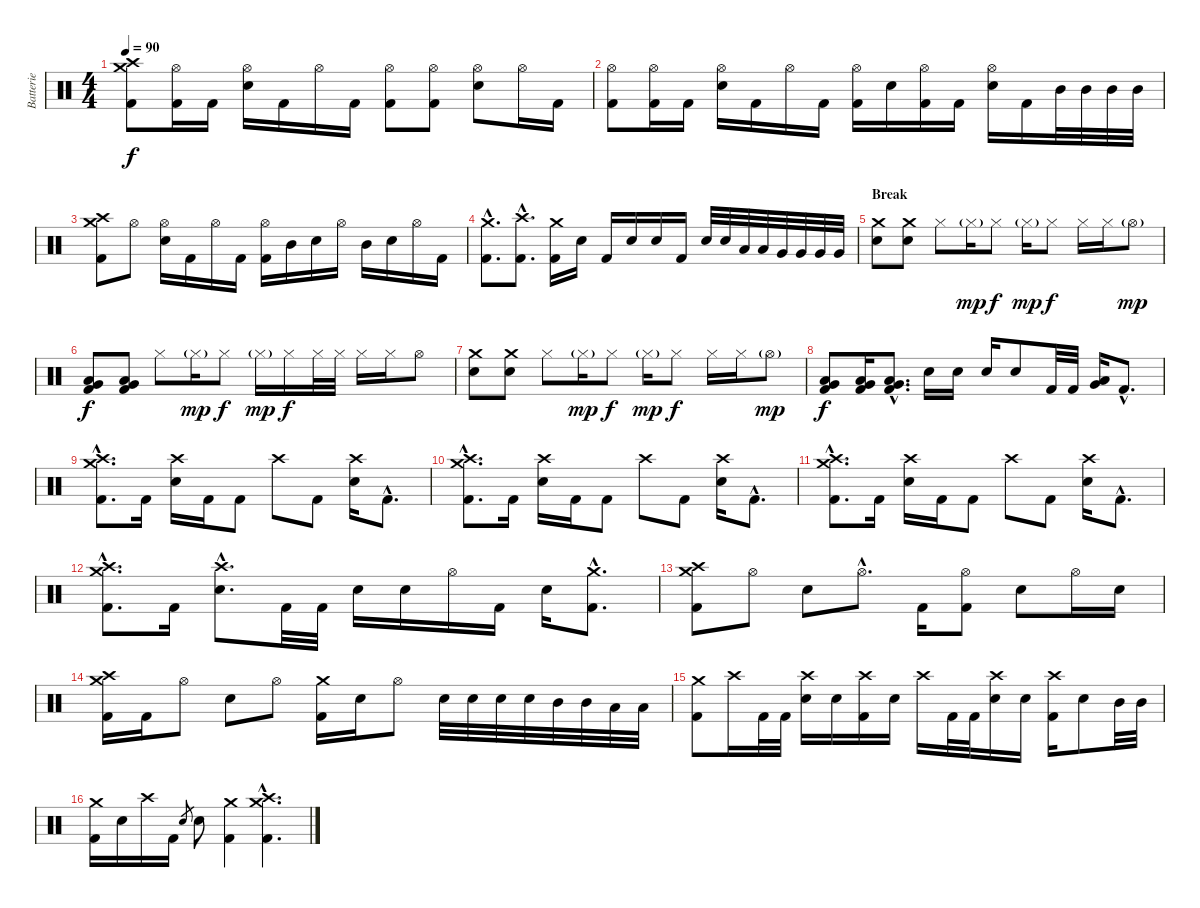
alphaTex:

\track ("Batterie" "Batterie") {instrument percussion}
\staff {score}
\articulation defaults
\ts (4 4)
\tempo 90
\clef neutral
\ks c
("Crash medium (hit)" "Crash high (hit)" "Kick (hit) 2").8{dy f} ("Hi-Hat (open)" "Kick (hit) 2").16 "Kick (hit) 2".16 ("Hi-Hat (open)" "Electric Snare (hit)").16 "Kick (hit) 2".16 "Hi-Hat (open)".16 "Kick (hit) 2".16 ("Hi-Hat (open)" "Kick (hit) 2").8 ("Hi-Hat (open)" "Kick (hit) 2").8 ("Hi-Hat (open)" "Electric Snare (hit)").8 "Hi-Hat (open)".16 "Kick (hit) 2".16 |
("Hi-Hat (open)" "Kick (hit) 2").8 ("Hi-Hat (open)" "Kick (hit) 2").16 "Kick (hit) 2".16 ("Hi-Hat (open)" "Electric Snare (hit)").16 "Kick (hit) 2".16 "Hi-Hat (open)".16 "Kick (hit) 2".16 ("Hi-Hat (open)" "Kick (hit) 2").16 "Electric Snare (hit)".16 ("Hi-Hat (open)" "Kick (hit) 2").16 "Kick (hit) 2".16 ("Hi-Hat (open)" "Electric Snare (hit)").16 "Kick (hit) 2".16 "Mid Tom (hit)".32 "Mid Tom (hit)".32 "Mid Tom (hit)".32 "Mid Tom (hit)".32 |
("Crash medium (hit)" "Crash high (hit)" "Kick (hit) 2").8 "Hi-Hat (open)".8 ("Hi-Hat (open)" "Electric Snare (hit)").16 "Kick (hit) 2".16 "Hi-Hat (open)".16 "Kick (hit) 2".16 ("Hi-Hat (open)" "Kick (hit) 2").16 "Mid Tom (hit)".16 "Electric Snare (hit)".16 "Hi-Hat (open)".16 "Mid Tom (hit)".16 "Electric Snare (hit)".16 "Hi-Hat (open)".16 "Kick (hit) 2".16 |
("Crash medium (hit)"{hac} "Kick (hit) 2"{hac}).8{d} ("Crash high (hit)"{hac} "Kick (hit) 2"{hac}).8{d} ("Crash medium (hit)" "Kick (hit) 2").16 "Electric Snare (hit)".16 "Kick (hit) 2".16 "Electric Snare (hit)".16 "Electric Snare (hit)".16 "Kick (hit) 2".16 "Electric Snare (hit)".32 "Electric Snare (hit)".32 "Low Tom (hit)".32 "Low Tom (hit)".32 "Very Low Tom (hit)".32 "Very Low Tom (hit)".32 "Very Low Tom (hit)".32 "Very Low Tom (hit)".32 |
\section ("" "Break")
("Crash medium (hit)" "Electric Snare (hit)").8 ("Crash medium (hit)" "Electric Snare (hit)").8 "Hi-Hat (closed)".8 "Hi-Hat (closed)"{g}.16{dy mp} "Hi-Hat (closed)".8{dy f} "Hi-Hat (closed)"{g}.16{dy mp} "Hi-Hat (closed)".8{dy f} "Hi-Hat (closed)".16 "Hi-Hat (closed)".16 "Hi-Hat (open)"{g}.8{dy mp} |
("Low Tom (hit)" "Very Low Tom (hit)" "Kick (hit) 2").8{dy f} ("Low Tom (hit)" "Very Low Tom (hit)" "Kick (hit) 2").8 "Hi-Hat (closed)".8 "Hi-Hat (closed)"{g}.16{dy mp} "Hi-Hat (closed)".8{dy f} "Hi-Hat (closed)"{g}.16{dy mp} "Hi-Hat (closed)".16{dy f} "Hi-Hat (closed)".32 "Hi-Hat (closed)".32 "Hi-Hat (closed)".16 "Hi-Hat (closed)".16 "Hi-Hat (open)".8 |
("Crash medium (hit)" "Electric Snare (hit)").8 ("Crash medium (hit)" "Electric Snare (hit)").8 "Hi-Hat (closed)".8 "Hi-Hat (closed)"{g}.16{dy mp} "Hi-Hat (closed)".8{dy f} "Hi-Hat (closed)"{g}.16{dy mp} "Hi-Hat (closed)".8{dy f} "Hi-Hat (closed)".16 "Hi-Hat (closed)".16 "Hi-Hat (open)"{g}.8{dy mp} |
("Low Tom (hit)" "Very Low Tom (hit)" "Kick (hit) 2").8{dy f} ("Low Tom (hit)" "Very Low Tom (hit)" "Kick (hit) 2").16 ("Low Tom (hit)"{hac} "Very Low Tom (hit)"{hac} "Kick (hit) 2"{hac}).8{d} "Electric Snare (hit)".16 "Electric Snare (hit)".16 "Electric Snare (hit)".16 "Electric Snare (hit)".8 "Kick (hit) 2".32 "Kick (hit) 2".32 ("Low Tom (hit)" "Very Low Tom (hit)").16 "Kick (hit) 2"{hac}.8{d} |
("Crash medium (hit)"{hac} "Crash high (hit)"{hac} "Kick (hit) 2"{hac}).8{d} "Kick (hit) 2".16 ("Crash high (hit)" "Electric Snare (hit)").16 "Kick (hit) 2".16 "Kick (hit) 2".8 "Crash high (hit)".8 "Kick (hit) 2".8 ("Crash high (hit)" "Electric Snare (hit)").16 "Kick (hit) 2"{hac}.8{d} |
("Crash medium (hit)"{hac} "Crash high (hit)"{hac} "Kick (hit) 2"{hac}).8{d} "Kick (hit) 2".16 ("Crash high (hit)" "Electric Snare (hit)").16 "Kick (hit) 2".16 "Kick (hit) 2".8 "Crash high (hit)".8 "Kick (hit) 2".8 ("Crash high (hit)" "Electric Snare (hit)").16 "Kick (hit) 2"{hac}.8{d} |
("Crash medium (hit)"{hac} "Crash high (hit)"{hac} "Kick (hit) 2"{hac}).8{d} "Kick (hit) 2".16 ("Crash high (hit)" "Electric Snare (hit)").16 "Kick (hit) 2".16 "Kick (hit) 2".8 "Crash high (hit)".8 "Kick (hit) 2".8 ("Crash high (hit)" "Electric Snare (hit)").16 "Kick (hit) 2"{hac}.8{d} |
("Crash medium (hit)"{hac} "Crash high (hit)"{hac} "Kick (hit) 2"{hac}).8{d} "Kick (hit) 2".16 ("Crash high (hit)"{hac} "Electric Snare (hit)"{hac}).8{d} "Kick (hit) 2".32 "Kick (hit) 2".32 "Electric Snare (hit)".16 "Electric Snare (hit)".16 "Hi-Hat (open)".16 "Kick (hit) 2".16 "Electric Snare (hit)".16 ("Crash medium (hit)"{hac} "Kick (hit) 2"{hac}).8{d} |
("Crash medium (hit)" "Crash high (hit)" "Kick (hit) 2").8 "Hi-Hat (open)".8 "Electric Snare (hit)".8 "Hi-Hat (open)"{hac}.8{d} "Kick (hit) 2".16 ("Hi-Hat (open)" "Kick (hit) 2").8 "Electric Snare (hit)".8 "Hi-Hat (open)".16 "Electric Snare (hit)".16 |
("Crash medium (hit)" "Crash high (hit)" "Kick (hit) 2").16 "Kick (hit) 2".16 "Hi-Hat (open)".8 "Electric Snare (hit)".8 "Hi-Hat (open)".8 ("Crash medium (hit)" "Kick (hit) 2").16 "Electric Snare (hit)".16 "Hi-Hat (open)".8 "Electric Snare (hit)".32 "Electric Snare (hit)".32 "Electric Snare (hit)".32 "Electric Snare (hit)".32 "Mid Tom (hit)".32 "Mid Tom (hit)".32 "Low Tom (hit)".32 "Low Tom (hit)".32 |
("Crash medium (hit)" "Kick (hit) 2").8 "Crash high (hit)".16 "Kick (hit) 2".32 "Kick (hit) 2".32 ("Crash high (hit)" "Electric Snare (hit)").16 "Electric Snare (hit)".16 ("Crash high (hit)" "Kick (hit) 2").16 "Electric Snare (hit)".16 "Crash high (hit)".16 "Kick (hit) 2".32 "Kick (hit) 2".32 ("Crash high (hit)" "Electric Snare (hit)").16 "Electric Snare (hit)".16 ("Crash high (hit)" "Kick (hit) 2").16 "Electric Snare (hit)".8 "Mid Tom (hit)".32 "Mid Tom (hit)".32 |
("Crash medium (hit)" "Kick (hit) 2").16 "Electric Snare (hit)".16 "Crash high (hit)".16 "Kick (hit) 2".16 "Electric Snare (hit)".8{gr} "Electric Snare (hit)".8 ("Crash medium (hit)" "Kick (hit) 2").4 ("Crash medium (hit)"{hac} "Crash high (hit)"{hac} "Kick (hit) 2"{hac}).4{d}
